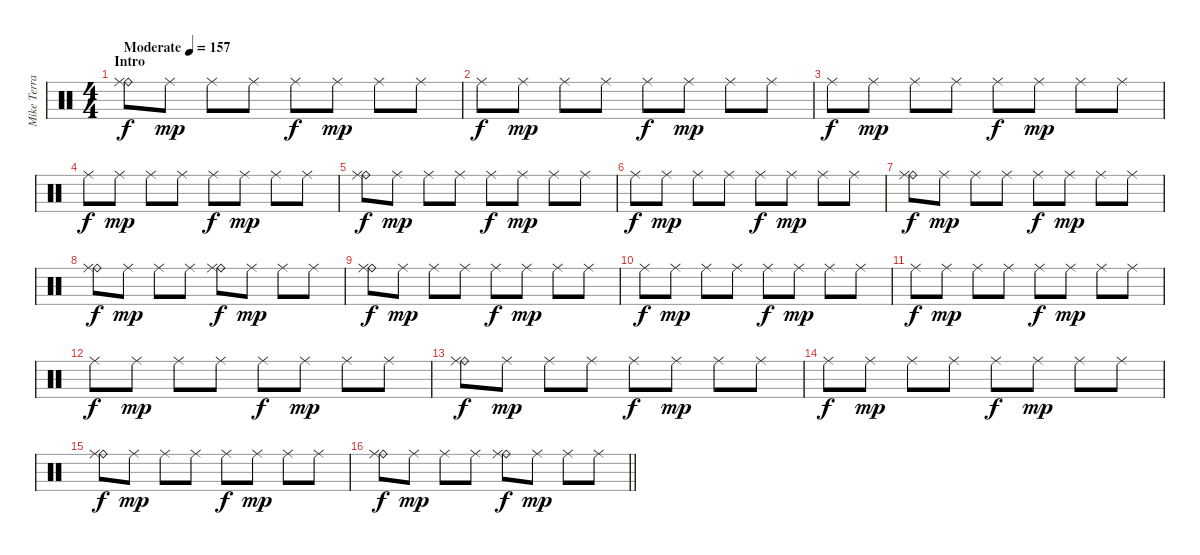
\track ("Mike Terrana" "Mike Terra") {instrument percussion}
\staff {score}
\articulation defaults
\ts (4 4)
\section ("" "Intro")
\tempo (157 "Moderate")
\clef neutral
\ks c
("Ride (bell)" "Ride (middle)").8{dy f} "Ride (middle)".8{dy mp} "Ride (middle)".8 "Ride (middle)".8 "Ride (middle)".8{dy f} "Ride (middle)".8{dy mp} "Ride (middle)".8 "Ride (middle)".8 |
"Ride (middle)".8{dy f} "Ride (middle)".8{dy mp} "Ride (middle)".8 "Ride (middle)".8 "Ride (middle)".8{dy f} "Ride (middle)".8{dy mp} "Ride (middle)".8 "Ride (middle)".8 |
"Ride (middle)".8{dy f} "Ride (middle)".8{dy mp} "Ride (middle)".8 "Ride (middle)".8 "Ride (middle)".8{dy f} "Ride (middle)".8{dy mp} "Ride (middle)".8 "Ride (middle)".8 |
"Ride (middle)".8{dy f} "Ride (middle)".8{dy mp} "Ride (middle)".8 "Ride (middle)".8 "Ride (middle)".8{dy f} "Ride (middle)".8{dy mp} "Ride (middle)".8 "Ride (middle)".8 |
("Ride (bell)" "Ride (middle)").8{dy f} "Ride (middle)".8{dy mp} "Ride (middle)".8 "Ride (middle)".8 "Ride (middle)".8{dy f} "Ride (middle)".8{dy mp} "Ride (middle)".8 "Ride (middle)".8 |
"Ride (middle)".8{dy f} "Ride (middle)".8{dy mp} "Ride (middle)".8 "Ride (middle)".8 "Ride (middle)".8{dy f} "Ride (middle)".8{dy mp} "Ride (middle)".8 "Ride (middle)".8 |
("Ride (bell)" "Ride (middle)").8{dy f} "Ride (middle)".8{dy mp} "Ride (middle)".8 "Ride (middle)".8 "Ride (middle)".8{dy f} "Ride (middle)".8{dy mp} "Ride (middle)".8 "Ride (middle)".8 |
("Ride (bell)" "Ride (middle)").8{dy f} "Ride (middle)".8{dy mp} "Ride (middle)".8 "Ride (middle)".8 ("Ride (bell)" "Ride (middle)").8{dy f} "Ride (middle)".8{dy mp} "Ride (middle)".8 "Ride (middle)".8 |
("Ride (bell)" "Ride (middle)").8{dy f} "Ride (middle)".8{dy mp} "Ride (middle)".8 "Ride (middle)".8 "Ride (middle)".8{dy f} "Ride (middle)".8{dy mp} "Ride (middle)".8 "Ride (middle)".8 |
"Ride (middle)".8{dy f} "Ride (middle)".8{dy mp} "Ride (middle)".8 "Ride (middle)".8 "Ride (middle)".8{dy f} "Ride (middle)".8{dy mp} "Ride (middle)".8 "Ride (middle)".8 |
"Ride (middle)".8{dy f} "Ride (middle)".8{dy mp} "Ride (middle)".8 "Ride (middle)".8 "Ride (middle)".8{dy f} "Ride (middle)".8{dy mp} "Ride (middle)".8 "Ride (middle)".8 |
"Ride (middle)".8{dy f} "Ride (middle)".8{dy mp} "Ride (middle)".8 "Ride (middle)".8 "Ride (middle)".8{dy f} "Ride (middle)".8{dy mp} "Ride (middle)".8 "Ride (middle)".8 |
("Ride (bell)" "Ride (middle)").8{dy f} "Ride (middle)".8{dy mp} "Ride (middle)".8 "Ride (middle)".8 "Ride (middle)".8{dy f} "Ride (middle)".8{dy mp} "Ride (middle)".8 "Ride (middle)".8 |
"Ride (middle)".8{dy f} "Ride (middle)".8{dy mp} "Ride (middle)".8 "Ride (middle)".8 "Ride (middle)".8{dy f} "Ride (middle)".8{dy mp} "Ride (middle)".8 "Ride (middle)".8 |
("Ride (bell)" "Ride (middle)").8{dy f} "Ride (middle)".8{dy mp} "Ride (middle)".8 "Ride (middle)".8 "Ride (middle)".8{dy f} "Ride (middle)".8{dy mp} "Ride (middle)".8 "Ride (middle)".8 |
\barLineRight lightlight
("Ride (bell)" "Ride (middle)").8{dy f} "Ride (middle)".8{dy mp} "Ride (middle)".8 "Ride (middle)".8 ("Ride (bell)" "Ride (middle)").8{dy f} "Ride (middle)".8{dy mp} "Ride (middle)".8 "Ride (middle)".8
